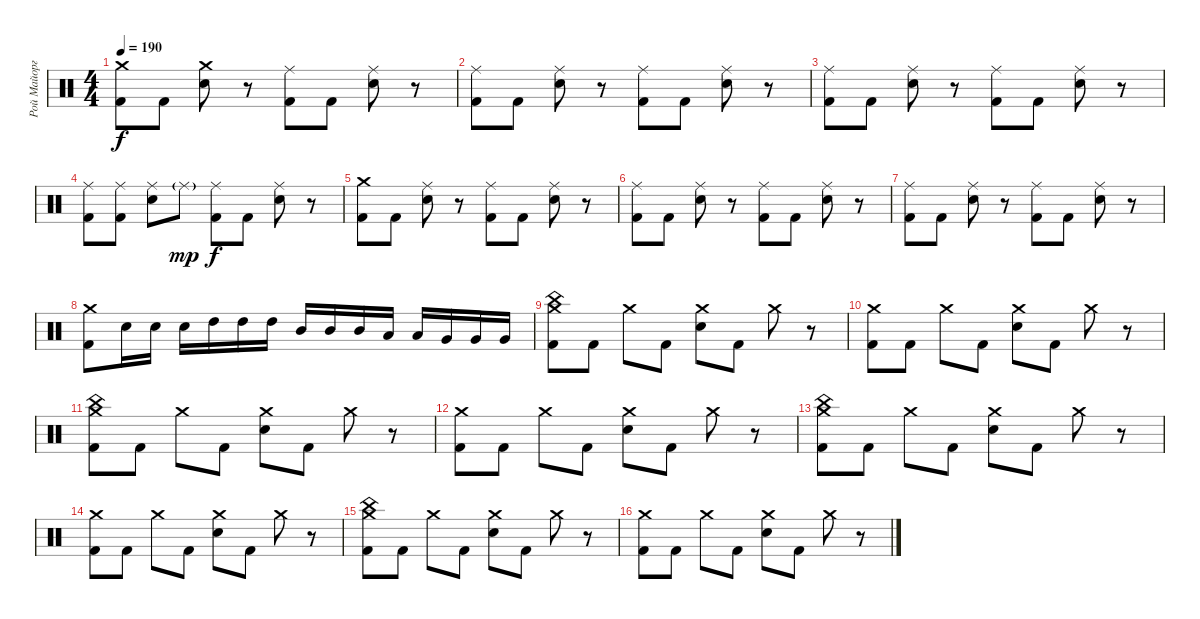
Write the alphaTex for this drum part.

\track ("Рой Майорга" "Рой Майорг") {instrument percussion}
\staff {score}
\articulation defaults
\ts (4 4)
\tempo 190
\clef neutral
\ks c
("Crash medium (hit)" "Kick (hit) 2").8{dy f} "Kick (hit) 2".8 ("Crash medium (hit)" "Electric Snare (hit)").8 r.8 ("Ride (middle)" "Kick (hit) 2").8 "Kick (hit) 2".8 ("Ride (middle)" "Electric Snare (hit)").8 r.8 |
("Ride (middle)" "Kick (hit) 2").8 "Kick (hit) 2".8 ("Ride (middle)" "Electric Snare (hit)").8 r.8 ("Ride (middle)" "Kick (hit) 2").8 "Kick (hit) 2".8 ("Ride (middle)" "Electric Snare (hit)").8 r.8 |
("Ride (middle)" "Kick (hit) 2").8 "Kick (hit) 2".8 ("Ride (middle)" "Electric Snare (hit)").8 r.8 ("Ride (middle)" "Kick (hit) 2").8 "Kick (hit) 2".8 ("Ride (middle)" "Electric Snare (hit)").8 r.8 |
("Ride (middle)" "Kick (hit) 2").8 ("Ride (middle)" "Kick (hit) 2").8 ("Ride (middle)" "Electric Snare (hit)").8 "Ride (middle)"{g}.8{dy mp} ("Ride (middle)" "Kick (hit) 2").8{dy f} "Kick (hit) 2".8 ("Ride (middle)" "Electric Snare (hit)").8 r.8 |
("Crash medium (hit)" "Kick (hit) 2").8 "Kick (hit) 2".8 ("Ride (middle)" "Electric Snare (hit)").8 r.8 ("Ride (middle)" "Kick (hit) 2").8 "Kick (hit) 2".8 ("Ride (middle)" "Electric Snare (hit)").8 r.8 |
("Ride (middle)" "Kick (hit) 2").8 "Kick (hit) 2".8 ("Ride (middle)" "Electric Snare (hit)").8 r.8 ("Ride (middle)" "Kick (hit) 2").8 "Kick (hit) 2".8 ("Ride (middle)" "Electric Snare (hit)").8 r.8 |
("Ride (middle)" "Kick (hit) 2").8 "Kick (hit) 2".8 ("Ride (middle)" "Electric Snare (hit)").8 r.8 ("Ride (middle)" "Kick (hit) 2").8 "Kick (hit) 2".8 ("Ride (middle)" "Electric Snare (hit)").8 r.8 |
("Crash medium (hit)" "Kick (hit) 2").8 "Electric Snare (hit)".16 "Electric Snare (hit)".16 "Electric Snare (hit)".16 "High Tom (hit)".16 "High Tom (hit)".16 "High Tom (hit)".16 "Mid Tom (hit)".16 "Mid Tom (hit)".16 "Mid Tom (hit)".16 "Low Tom (hit)".16 "Low Tom (hit)".16 "Very Low Tom (hit)".16 "Very Low Tom (hit)".16 "Very Low Tom (hit)".16 |
("Crash medium (hit)" "China (hit)" "Kick (hit) 2").8 "Kick (hit) 2".8 "Crash medium (hit)".8 "Kick (hit) 2".8 ("Crash medium (hit)" "Electric Snare (hit)").8 "Kick (hit) 2".8 "Crash medium (hit)".8 r.8 |
("Crash medium (hit)" "Kick (hit) 2").8 "Kick (hit) 2".8 "Crash medium (hit)".8 "Kick (hit) 2".8 ("Crash medium (hit)" "Electric Snare (hit)").8 "Kick (hit) 2".8 "Crash medium (hit)".8 r.8 |
("Crash medium (hit)" "China (hit)" "Kick (hit) 2").8 "Kick (hit) 2".8 "Crash medium (hit)".8 "Kick (hit) 2".8 ("Crash medium (hit)" "Electric Snare (hit)").8 "Kick (hit) 2".8 "Crash medium (hit)".8 r.8 |
("Crash medium (hit)" "Kick (hit) 2").8 "Kick (hit) 2".8 "Crash medium (hit)".8 "Kick (hit) 2".8 ("Crash medium (hit)" "Electric Snare (hit)").8 "Kick (hit) 2".8 "Crash medium (hit)".8 r.8 |
("Crash medium (hit)" "China (hit)" "Kick (hit) 2").8 "Kick (hit) 2".8 "Crash medium (hit)".8 "Kick (hit) 2".8 ("Crash medium (hit)" "Electric Snare (hit)").8 "Kick (hit) 2".8 "Crash medium (hit)".8 r.8 |
("Crash medium (hit)" "Kick (hit) 2").8 "Kick (hit) 2".8 "Crash medium (hit)".8 "Kick (hit) 2".8 ("Crash medium (hit)" "Electric Snare (hit)").8 "Kick (hit) 2".8 "Crash medium (hit)".8 r.8 |
("Crash medium (hit)" "China (hit)" "Kick (hit) 2").8 "Kick (hit) 2".8 "Crash medium (hit)".8 "Kick (hit) 2".8 ("Crash medium (hit)" "Electric Snare (hit)").8 "Kick (hit) 2".8 "Crash medium (hit)".8 r.8 |
("Crash medium (hit)" "Kick (hit) 2").8 "Kick (hit) 2".8 "Crash medium (hit)".8 "Kick (hit) 2".8 ("Crash medium (hit)" "Electric Snare (hit)").8 "Kick (hit) 2".8 "Crash medium (hit)".8 r.8
